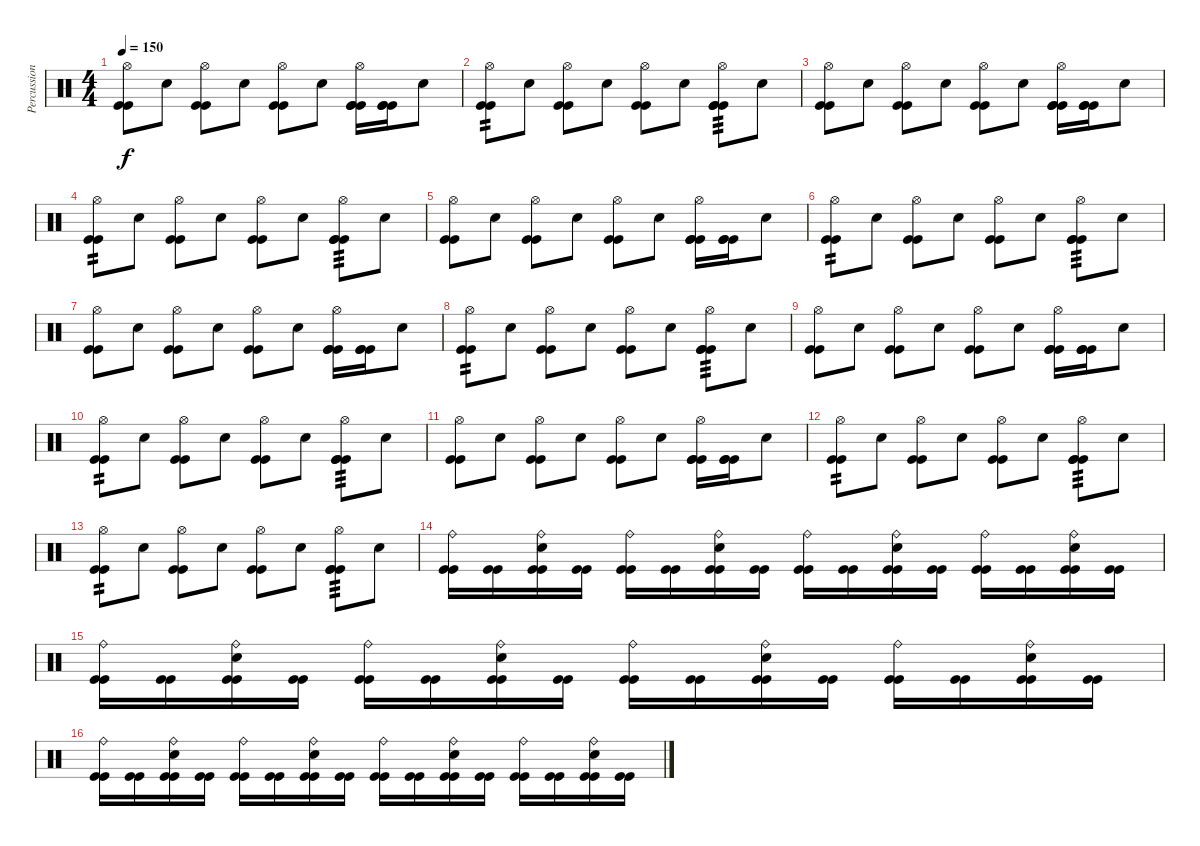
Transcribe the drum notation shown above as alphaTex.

\track ("Percussions" "Percussion") {instrument percussion}
\staff {score}
\articulation defaults
\ts (4 4)
\tempo 150
\clef neutral
\ks c
("Kick (hit)" "Kick (hit)" "Hi-Hat (open)").8{dy f} "Electric Snare (hit)".8 ("Kick (hit)" "Kick (hit)" "Hi-Hat (open)").8 "Electric Snare (hit)".8 ("Kick (hit)" "Kick (hit)" "Hi-Hat (open)").8 "Electric Snare (hit)".8 ("Kick (hit)" "Kick (hit)" "Kick (hit)" "Hi-Hat (open)").16 ("Kick (hit)" "Kick (hit)" "Kick (hit)").16 "Electric Snare (hit)".8 |
("Kick (hit)" "Kick (hit)" "Hi-Hat (open)").8{tp 2} "Electric Snare (hit)".8 ("Kick (hit)" "Kick (hit)" "Hi-Hat (open)").8 "Electric Snare (hit)".8 ("Kick (hit)" "Kick (hit)" "Hi-Hat (open)").8 "Electric Snare (hit)".8 ("Kick (hit)" "Kick (hit)" "Kick (hit)" "Hi-Hat (open)").8{tp 3} "Electric Snare (hit)".8 |
("Kick (hit)" "Kick (hit)" "Hi-Hat (open)").8 "Electric Snare (hit)".8 ("Kick (hit)" "Kick (hit)" "Hi-Hat (open)").8 "Electric Snare (hit)".8 ("Kick (hit)" "Kick (hit)" "Hi-Hat (open)").8 "Electric Snare (hit)".8 ("Kick (hit)" "Kick (hit)" "Kick (hit)" "Hi-Hat (open)").16 ("Kick (hit)" "Kick (hit)" "Kick (hit)").16 "Electric Snare (hit)".8 |
("Kick (hit)" "Kick (hit)" "Hi-Hat (open)").8{tp 2} "Electric Snare (hit)".8 ("Kick (hit)" "Kick (hit)" "Hi-Hat (open)").8 "Electric Snare (hit)".8 ("Kick (hit)" "Kick (hit)" "Hi-Hat (open)").8 "Electric Snare (hit)".8 ("Kick (hit)" "Kick (hit)" "Kick (hit)" "Hi-Hat (open)").8{tp 3} "Electric Snare (hit)".8 |
("Kick (hit)" "Kick (hit)" "Hi-Hat (open)").8 "Electric Snare (hit)".8 ("Kick (hit)" "Kick (hit)" "Hi-Hat (open)").8 "Electric Snare (hit)".8 ("Kick (hit)" "Kick (hit)" "Hi-Hat (open)").8 "Electric Snare (hit)".8 ("Kick (hit)" "Kick (hit)" "Kick (hit)" "Hi-Hat (open)").16 ("Kick (hit)" "Kick (hit)" "Kick (hit)").16 "Electric Snare (hit)".8 |
("Kick (hit)" "Kick (hit)" "Hi-Hat (open)").8{tp 2} "Electric Snare (hit)".8 ("Kick (hit)" "Kick (hit)" "Hi-Hat (open)").8 "Electric Snare (hit)".8 ("Kick (hit)" "Kick (hit)" "Hi-Hat (open)").8 "Electric Snare (hit)".8 ("Kick (hit)" "Kick (hit)" "Kick (hit)" "Hi-Hat (open)").8{tp 3} "Electric Snare (hit)".8 |
("Kick (hit)" "Kick (hit)" "Hi-Hat (open)").8 "Electric Snare (hit)".8 ("Kick (hit)" "Kick (hit)" "Hi-Hat (open)").8 "Electric Snare (hit)".8 ("Kick (hit)" "Kick (hit)" "Hi-Hat (open)").8 "Electric Snare (hit)".8 ("Kick (hit)" "Kick (hit)" "Kick (hit)" "Hi-Hat (open)").16 ("Kick (hit)" "Kick (hit)" "Kick (hit)").16 "Electric Snare (hit)".8 |
("Kick (hit)" "Kick (hit)" "Hi-Hat (open)").8{tp 2} "Electric Snare (hit)".8 ("Kick (hit)" "Kick (hit)" "Hi-Hat (open)").8 "Electric Snare (hit)".8 ("Kick (hit)" "Kick (hit)" "Hi-Hat (open)").8 "Electric Snare (hit)".8 ("Kick (hit)" "Kick (hit)" "Kick (hit)" "Hi-Hat (open)").8{tp 3} "Electric Snare (hit)".8 |
("Kick (hit)" "Kick (hit)" "Hi-Hat (open)").8 "Electric Snare (hit)".8 ("Kick (hit)" "Kick (hit)" "Hi-Hat (open)").8 "Electric Snare (hit)".8 ("Kick (hit)" "Kick (hit)" "Hi-Hat (open)").8 "Electric Snare (hit)".8 ("Kick (hit)" "Kick (hit)" "Kick (hit)" "Hi-Hat (open)").16 ("Kick (hit)" "Kick (hit)" "Kick (hit)").16 "Electric Snare (hit)".8 |
("Kick (hit)" "Kick (hit)" "Hi-Hat (open)").8{tp 2} "Electric Snare (hit)".8 ("Kick (hit)" "Kick (hit)" "Hi-Hat (open)").8 "Electric Snare (hit)".8 ("Kick (hit)" "Kick (hit)" "Hi-Hat (open)").8 "Electric Snare (hit)".8 ("Kick (hit)" "Kick (hit)" "Kick (hit)" "Hi-Hat (open)").8{tp 3} "Electric Snare (hit)".8 |
("Kick (hit)" "Kick (hit)" "Hi-Hat (open)").8 "Electric Snare (hit)".8 ("Kick (hit)" "Kick (hit)" "Hi-Hat (open)").8 "Electric Snare (hit)".8 ("Kick (hit)" "Kick (hit)" "Hi-Hat (open)").8 "Electric Snare (hit)".8 ("Kick (hit)" "Kick (hit)" "Kick (hit)" "Hi-Hat (open)").16 ("Kick (hit)" "Kick (hit)" "Kick (hit)").16 "Electric Snare (hit)".8 |
("Kick (hit)" "Kick (hit)" "Hi-Hat (open)").8{tp 2} "Electric Snare (hit)".8 ("Kick (hit)" "Kick (hit)" "Hi-Hat (open)").8 "Electric Snare (hit)".8 ("Kick (hit)" "Kick (hit)" "Hi-Hat (open)").8 "Electric Snare (hit)".8 ("Kick (hit)" "Kick (hit)" "Kick (hit)" "Hi-Hat (open)").8{tp 3} "Electric Snare (hit)".8 |
("Kick (hit)" "Kick (hit)" "Hi-Hat (open)").8{tp 2} "Electric Snare (hit)".8 ("Kick (hit)" "Kick (hit)" "Hi-Hat (open)").8 "Electric Snare (hit)".8 ("Kick (hit)" "Kick (hit)" "Hi-Hat (open)").8 "Electric Snare (hit)".8 ("Kick (hit)" "Kick (hit)" "Kick (hit)" "Hi-Hat (open)").8{tp 3} "Electric Snare (hit)".8 |
("Kick (hit)" "Kick (hit)" "Ride (bell)").16 ("Kick (hit)" "Kick (hit)").16 ("Kick (hit)" "Kick (hit)" "Electric Snare (hit)" "Ride (bell)").16 ("Kick (hit)" "Kick (hit)").16 ("Kick (hit)" "Kick (hit)" "Ride (bell)").16 ("Kick (hit)" "Kick (hit)").16 ("Kick (hit)" "Kick (hit)" "Electric Snare (hit)" "Ride (bell)").16 ("Kick (hit)" "Kick (hit)").16 ("Kick (hit)" "Kick (hit)" "Ride (bell)").16 ("Kick (hit)" "Kick (hit)").16 ("Kick (hit)" "Kick (hit)" "Electric Snare (hit)" "Ride (bell)").16 ("Kick (hit)" "Kick (hit)").16 ("Kick (hit)" "Kick (hit)" "Ride (bell)").16 ("Kick (hit)" "Kick (hit)").16 ("Kick (hit)" "Kick (hit)" "Electric Snare (hit)" "Ride (bell)").16 ("Kick (hit)" "Kick (hit)").16 |
("Kick (hit)" "Kick (hit)" "Ride (bell)").16 ("Kick (hit)" "Kick (hit)").16 ("Kick (hit)" "Kick (hit)" "Electric Snare (hit)" "Ride (bell)").16 ("Kick (hit)" "Kick (hit)").16 ("Kick (hit)" "Kick (hit)" "Ride (bell)").16 ("Kick (hit)" "Kick (hit)").16 ("Kick (hit)" "Kick (hit)" "Electric Snare (hit)" "Ride (bell)").16 ("Kick (hit)" "Kick (hit)").16 ("Kick (hit)" "Kick (hit)" "Ride (bell)").16 ("Kick (hit)" "Kick (hit)").16 ("Kick (hit)" "Kick (hit)" "Electric Snare (hit)" "Ride (bell)").16 ("Kick (hit)" "Kick (hit)").16 ("Kick (hit)" "Kick (hit)" "Ride (bell)").16 ("Kick (hit)" "Kick (hit)").16 ("Kick (hit)" "Kick (hit)" "Electric Snare (hit)" "Ride (bell)").16 ("Kick (hit)" "Kick (hit)").16 |
("Kick (hit)" "Kick (hit)" "Ride (bell)").16 ("Kick (hit)" "Kick (hit)").16 ("Kick (hit)" "Kick (hit)" "Electric Snare (hit)" "Ride (bell)").16 ("Kick (hit)" "Kick (hit)").16 ("Kick (hit)" "Kick (hit)" "Ride (bell)").16 ("Kick (hit)" "Kick (hit)").16 ("Kick (hit)" "Kick (hit)" "Electric Snare (hit)" "Ride (bell)").16 ("Kick (hit)" "Kick (hit)").16 ("Kick (hit)" "Kick (hit)" "Ride (bell)").16 ("Kick (hit)" "Kick (hit)").16 ("Kick (hit)" "Kick (hit)" "Electric Snare (hit)" "Ride (bell)").16 ("Kick (hit)" "Kick (hit)").16 ("Kick (hit)" "Kick (hit)" "Ride (bell)").16 ("Kick (hit)" "Kick (hit)").16 ("Kick (hit)" "Kick (hit)" "Electric Snare (hit)" "Ride (bell)").16 ("Kick (hit)" "Kick (hit)").16
